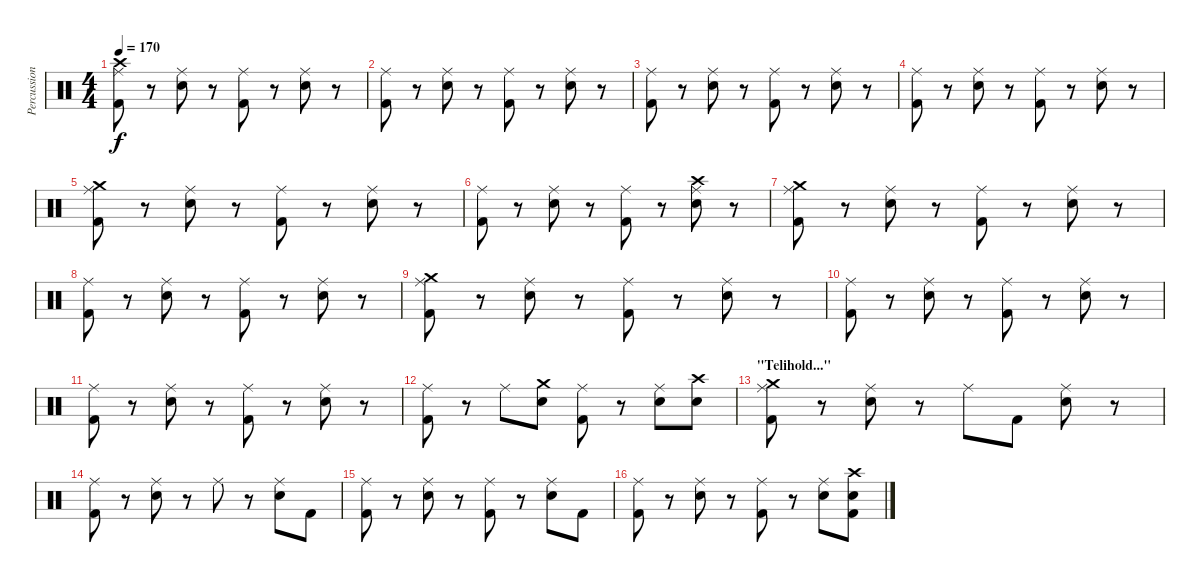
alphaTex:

\track ("Percussion" "Percussion") {instrument percussion}
\staff {score}
\articulation defaults
\ts (4 4)
\tempo 170
\clef neutral
\ks c
("Ride (middle)" "Kick (hit) 2" "Crash high (hit)").8{dy f} r.8 ("Ride (middle)" "Electric Snare (hit)").8 r.8 ("Ride (middle)" "Kick (hit) 2").8 r.8 ("Ride (middle)" "Electric Snare (hit)").8 r.8 |
("Ride (middle)" "Kick (hit) 2").8 r.8 ("Ride (middle)" "Electric Snare (hit)").8 r.8 ("Ride (middle)" "Kick (hit) 2").8 r.8 ("Ride (middle)" "Electric Snare (hit)").8 r.8 |
("Ride (middle)" "Kick (hit) 2").8 r.8 ("Ride (middle)" "Electric Snare (hit)").8 r.8 ("Ride (middle)" "Kick (hit) 2").8 r.8 ("Ride (middle)" "Electric Snare (hit)").8 r.8 |
("Ride (middle)" "Kick (hit) 2").8 r.8 ("Ride (middle)" "Electric Snare (hit)").8 r.8 ("Ride (middle)" "Kick (hit) 2").8 r.8 ("Ride (middle)" "Electric Snare (hit)").8 r.8 |
("Ride (middle)" "Kick (hit) 2" "Crash medium (hit)").8 r.8 ("Ride (middle)" "Electric Snare (hit)").8 r.8 ("Ride (middle)" "Kick (hit) 2").8 r.8 ("Ride (middle)" "Electric Snare (hit)").8 r.8 |
("Ride (middle)" "Kick (hit) 2").8 r.8 ("Ride (middle)" "Electric Snare (hit)").8 r.8 ("Ride (middle)" "Kick (hit) 2").8 r.8 ("Ride (middle)" "Crash high (hit)" "Electric Snare (hit)").8 r.8 |
("Ride (middle)" "Kick (hit) 2" "Crash medium (hit)").8 r.8 ("Ride (middle)" "Electric Snare (hit)").8 r.8 ("Ride (middle)" "Kick (hit) 2").8 r.8 ("Ride (middle)" "Electric Snare (hit)").8 r.8 |
("Ride (middle)" "Kick (hit) 2").8 r.8 ("Ride (middle)" "Electric Snare (hit)").8 r.8 ("Ride (middle)" "Kick (hit) 2").8 r.8 ("Ride (middle)" "Electric Snare (hit)").8 r.8 |
("Ride (middle)" "Kick (hit) 2" "Crash medium (hit)").8 r.8 ("Ride (middle)" "Electric Snare (hit)").8 r.8 ("Ride (middle)" "Kick (hit) 2").8 r.8 ("Ride (middle)" "Electric Snare (hit)").8 r.8 |
("Ride (middle)" "Kick (hit) 2").8 r.8 ("Ride (middle)" "Electric Snare (hit)").8 r.8 ("Ride (middle)" "Kick (hit) 2").8 r.8 ("Ride (middle)" "Electric Snare (hit)").8 r.8 |
("Ride (middle)" "Kick (hit) 2").8 r.8 ("Ride (middle)" "Electric Snare (hit)").8 r.8 ("Ride (middle)" "Kick (hit) 2").8 r.8 ("Ride (middle)" "Electric Snare (hit)").8 r.8 |
("Ride (middle)" "Kick (hit) 2").8 r.8 "Ride (middle)".8 ("Crash medium (hit)" "Electric Snare (hit)").8 ("Ride (middle)" "Kick (hit) 2").8 r.8 ("Ride (middle)" "Electric Snare (hit)").8 ("Crash high (hit)" "Electric Snare (hit)").8 |
\section ("" "\"Telihold...\"")
("Ride (middle)" "Kick (hit) 2" "Crash medium (hit)").8 r.8 ("Ride (middle)" "Electric Snare (hit)").8 r.8 "Ride (middle)".8 "Kick (hit) 2".8 ("Ride (middle)" "Electric Snare (hit)").8 r.8 |
("Ride (middle)" "Kick (hit) 2").8 r.8 ("Ride (middle)" "Electric Snare (hit)").8 r.8 "Ride (middle)".8 r.8 ("Ride (middle)" "Electric Snare (hit)").8 "Kick (hit) 2".8 |
("Ride (middle)" "Kick (hit) 2").8 r.8 ("Ride (middle)" "Electric Snare (hit)").8 r.8 ("Ride (middle)" "Kick (hit) 2").8 r.8 ("Ride (middle)" "Electric Snare (hit)").8 "Kick (hit) 2".8 |
("Ride (middle)" "Kick (hit) 2").8 r.8 ("Ride (middle)" "Electric Snare (hit)").8 r.8 ("Ride (middle)" "Kick (hit) 2").8 r.8 ("Ride (middle)" "Electric Snare (hit)").8 ("Kick (hit) 2" "Crash high (hit)" "Electric Snare (hit)").8
